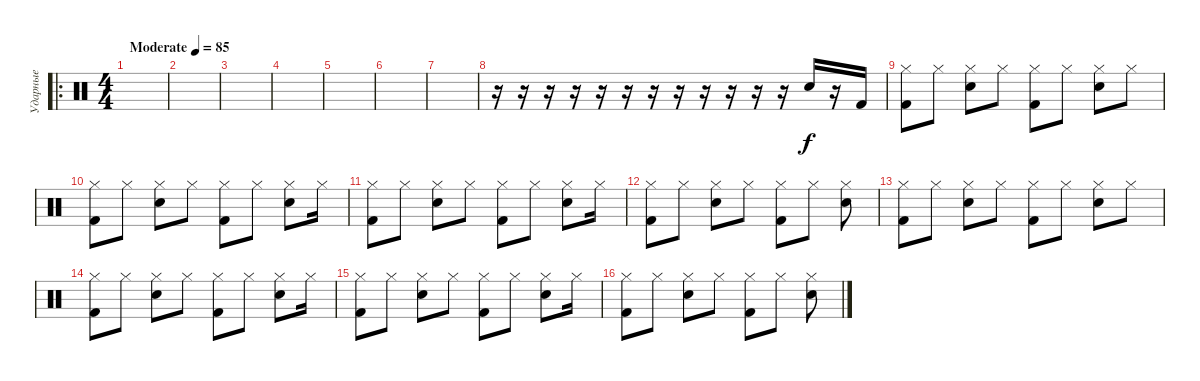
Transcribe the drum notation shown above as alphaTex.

\track ("Ударные" "Ударные") {instrument percussion}
\staff {score}
\articulation defaults
\ro
\ts (4 4)
\tempo (85 "Moderate")
\clef neutral
\ks c
|
|
|
|
|
|
|
r.16 r.16 r.16 r.16 r.16 r.16 r.16 r.16 r.16 r.16 r.16 r.16 "Snare (hit) 2".16 r.16 "Kick (hit) 2".16 |
("Hi-Hat (closed)" "Kick (hit) 2").8 "Hi-Hat (closed)".8 ("Hi-Hat (closed)" "Snare (hit) 2").8 "Hi-Hat (closed)".8 ("Hi-Hat (closed)" "Kick (hit) 2").8 "Hi-Hat (closed)".8 ("Hi-Hat (closed)" "Snare (hit) 2").8 "Hi-Hat (closed)".8 |
("Hi-Hat (closed)" "Kick (hit) 2").8 "Hi-Hat (closed)".8 ("Hi-Hat (closed)" "Snare (hit) 2").8 "Hi-Hat (closed)".8 ("Hi-Hat (closed)" "Kick (hit) 2").8 "Hi-Hat (closed)".8 ("Hi-Hat (closed)" "Snare (hit) 2").8 "Hi-Hat (closed)".16 |
("Hi-Hat (closed)" "Kick (hit) 2").8 "Hi-Hat (closed)".8 ("Hi-Hat (closed)" "Snare (hit) 2").8 "Hi-Hat (closed)".8 ("Hi-Hat (closed)" "Kick (hit) 2").8 "Hi-Hat (closed)".8 ("Hi-Hat (closed)" "Snare (hit) 2").8 "Hi-Hat (closed)".16 |
("Hi-Hat (closed)" "Kick (hit) 2").8 "Hi-Hat (closed)".8 ("Hi-Hat (closed)" "Snare (hit) 2").8 "Hi-Hat (closed)".8 ("Hi-Hat (closed)" "Kick (hit) 2").8 "Hi-Hat (closed)".8 ("Hi-Hat (closed)" "Snare (hit) 2").8 |
("Hi-Hat (closed)" "Kick (hit) 2").8 "Hi-Hat (closed)".8 ("Hi-Hat (closed)" "Snare (hit) 2").8 "Hi-Hat (closed)".8 ("Hi-Hat (closed)" "Kick (hit) 2").8 "Hi-Hat (closed)".8 ("Hi-Hat (closed)" "Snare (hit) 2").8 "Hi-Hat (closed)".8 |
("Hi-Hat (closed)" "Kick (hit) 2").8 "Hi-Hat (closed)".8 ("Hi-Hat (closed)" "Snare (hit) 2").8 "Hi-Hat (closed)".8 ("Hi-Hat (closed)" "Kick (hit) 2").8 "Hi-Hat (closed)".8 ("Hi-Hat (closed)" "Snare (hit) 2").8 "Hi-Hat (closed)".16 |
("Hi-Hat (closed)" "Kick (hit) 2").8 "Hi-Hat (closed)".8 ("Hi-Hat (closed)" "Snare (hit) 2").8 "Hi-Hat (closed)".8 ("Hi-Hat (closed)" "Kick (hit) 2").8 "Hi-Hat (closed)".8 ("Hi-Hat (closed)" "Snare (hit) 2").8 "Hi-Hat (closed)".16 |
("Hi-Hat (closed)" "Kick (hit) 2").8 "Hi-Hat (closed)".8 ("Hi-Hat (closed)" "Snare (hit) 2").8 "Hi-Hat (closed)".8 ("Hi-Hat (closed)" "Kick (hit) 2").8 "Hi-Hat (closed)".8 ("Hi-Hat (closed)" "Snare (hit) 2").8
